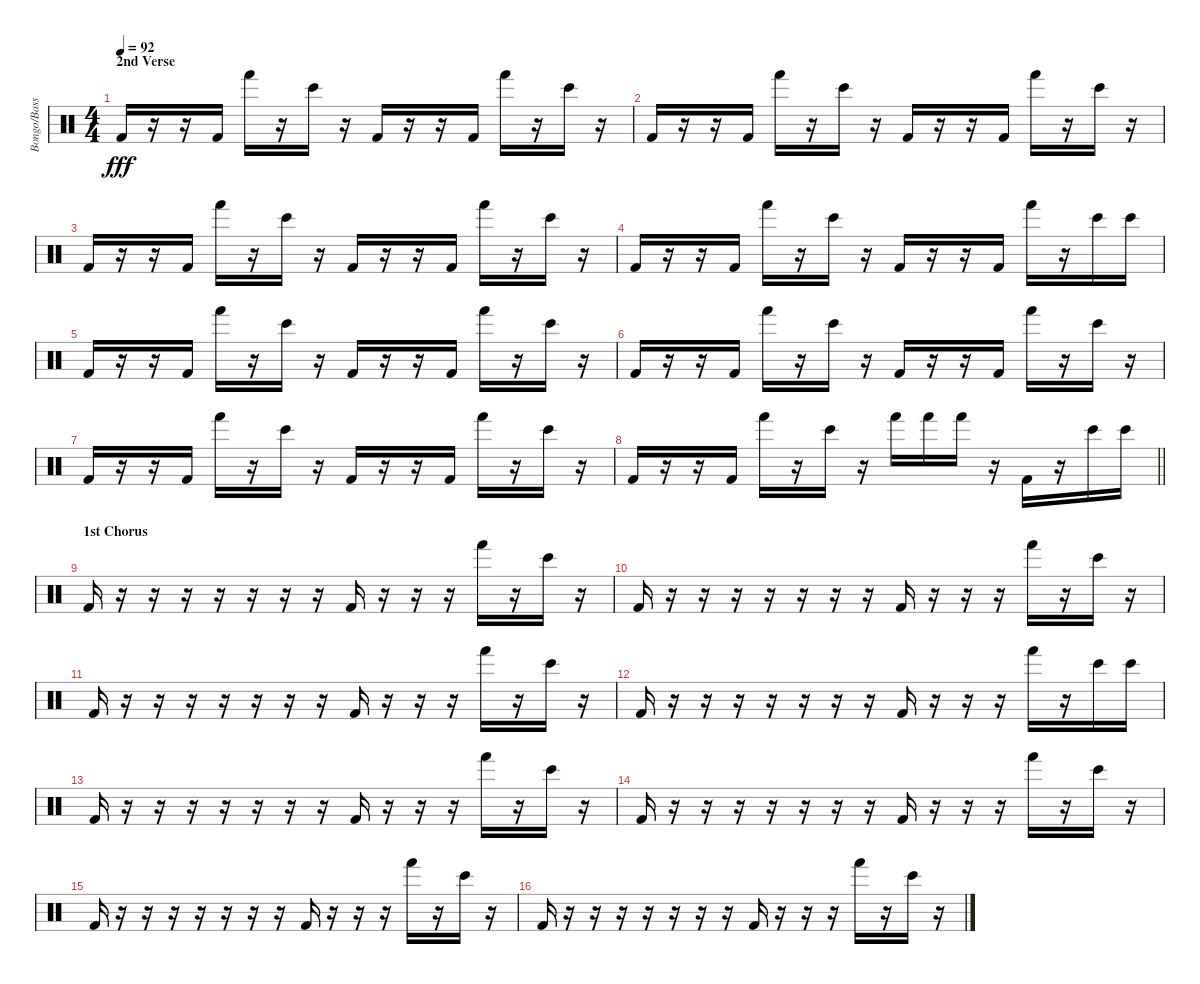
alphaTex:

\track ("Bongo/Bass Drum" "Bongo/Bass") {instrument percussion}
\staff
\articulation defaults
\ts (4 4)
\section ("" "2nd Verse")
\tempo 92
\clef neutral
\ks c "Kick (hit) 2".16{dy fff}
r.16 r.16 "Kick (hit) 2".16 "Hand (hit)".16 r.16 "Bongo High (hit)".16 r.16 "Kick (hit) 2".16 r.16 r.16 "Kick (hit) 2".16 "Hand (hit)".16 r.16 "Bongo High (hit)".16 r.16 |
"Kick (hit) 2".16 r.16 r.16 "Kick (hit) 2".16 "Hand (hit)".16 r.16 "Bongo High (hit)".16 r.16 "Kick (hit) 2".16 r.16 r.16 "Kick (hit) 2".16 "Hand (hit)".16 r.16 "Bongo High (hit)".16 r.16 |
"Kick (hit) 2".16 r.16 r.16 "Kick (hit) 2".16 "Hand (hit)".16 r.16 "Bongo High (hit)".16 r.16 "Kick (hit) 2".16 r.16 r.16 "Kick (hit) 2".16 "Hand (hit)".16 r.16 "Bongo High (hit)".16 r.16 |
"Kick (hit) 2".16 r.16 r.16 "Kick (hit) 2".16 "Hand (hit)".16 r.16 "Bongo High (hit)".16 r.16 "Kick (hit) 2".16 r.16 r.16 "Kick (hit) 2".16 "Hand (hit)".16 r.16 "Bongo High (hit)".16 "Bongo High (hit)".16 |
"Kick (hit) 2".16 r.16 r.16 "Kick (hit) 2".16 "Hand (hit)".16 r.16 "Bongo High (hit)".16 r.16 "Kick (hit) 2".16 r.16 r.16 "Kick (hit) 2".16 "Hand (hit)".16 r.16 "Bongo High (hit)".16 r.16 |
"Kick (hit) 2".16 r.16 r.16 "Kick (hit) 2".16 "Hand (hit)".16 r.16 "Bongo High (hit)".16 r.16 "Kick (hit) 2".16 r.16 r.16 "Kick (hit) 2".16 "Hand (hit)".16 r.16 "Bongo High (hit)".16 r.16 |
"Kick (hit) 2".16 r.16 r.16 "Kick (hit) 2".16 "Hand (hit)".16 r.16 "Bongo High (hit)".16 r.16 "Kick (hit) 2".16 r.16 r.16 "Kick (hit) 2".16 "Hand (hit)".16 r.16 "Bongo High (hit)".16 r.16 |
\barLineRight lightlight "Kick (hit) 2".16
r.16 r.16 "Kick (hit) 2".16 "Hand (hit)".16 r.16 "Bongo High (hit)".16 r.16 "Hand (hit)".16 "Hand (hit)".16 "Hand (hit)".16 r.16 "Kick (hit) 2".16 r.16 "Bongo High (hit)".16 "Bongo High (hit)".16 |
\section ("" "1st Chorus")
"Kick (hit) 2".16 r.16 r.16 r.16 r.16 r.16 r.16 r.16 "Kick (hit) 2".16 r.16 r.16 r.16 "Hand (hit)".16 r.16 "Bongo High (hit)".16 r.16 |
"Kick (hit) 2".16 r.16 r.16 r.16 r.16 r.16 r.16 r.16 "Kick (hit) 2".16 r.16 r.16 r.16 "Hand (hit)".16 r.16 "Bongo High (hit)".16 r.16 |
"Kick (hit) 2".16 r.16 r.16 r.16 r.16 r.16 r.16 r.16 "Kick (hit) 2".16 r.16 r.16 r.16 "Hand (hit)".16 r.16 "Bongo High (hit)".16 r.16 |
"Kick (hit) 2".16 r.16 r.16 r.16 r.16 r.16 r.16 r.16 "Kick (hit) 2".16 r.16 r.16 r.16 "Hand (hit)".16 r.16 "Bongo High (hit)".16 "Bongo High (hit)".16 |
"Kick (hit) 2".16 r.16 r.16 r.16 r.16 r.16 r.16 r.16 "Kick (hit) 2".16 r.16 r.16 r.16 "Hand (hit)".16 r.16 "Bongo High (hit)".16 r.16 |
"Kick (hit) 2".16 r.16 r.16 r.16 r.16 r.16 r.16 r.16 "Kick (hit) 2".16 r.16 r.16 r.16 "Hand (hit)".16 r.16 "Bongo High (hit)".16 r.16 |
"Kick (hit) 2".16 r.16 r.16 r.16 r.16 r.16 r.16 r.16 "Kick (hit) 2".16 r.16 r.16 r.16 "Hand (hit)".16 r.16 "Bongo High (hit)".16 r.16 |
"Kick (hit) 2".16 r.16 r.16 r.16 r.16 r.16 r.16 r.16 "Kick (hit) 2".16 r.16 r.16 r.16 "Hand (hit)".16 r.16 "Bongo High (hit)".16 r.16
